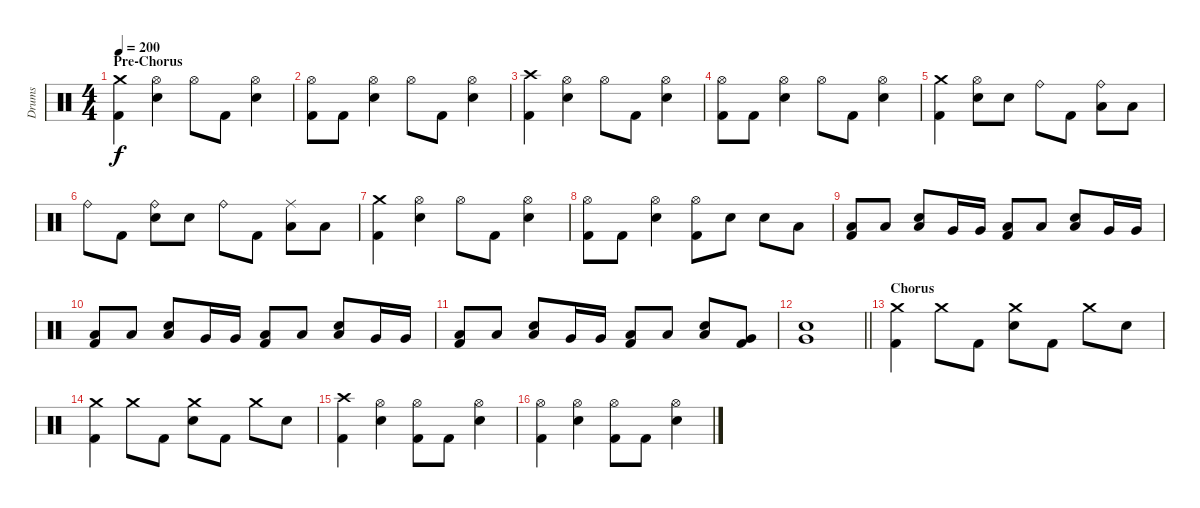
\track ("Drums" "Drums") {instrument percussion}
\staff {score}
\articulation defaults
\ts (4 4)
\section ("" "Pre-Chorus")
\tempo 200
\clef neutral
\ks c
("Crash medium (hit)" "Kick (hit) 2").4{dy f} ("Hi-Hat (open)" "Electric Snare (hit)").4 "Hi-Hat (open)".8 "Kick (hit) 2".8 ("Hi-Hat (open)" "Electric Snare (hit)").4 |
("Hi-Hat (open)" "Kick (hit) 2").8 "Kick (hit) 2".8 ("Hi-Hat (open)" "Electric Snare (hit)").4 "Hi-Hat (open)".8 "Kick (hit) 2".8 ("Hi-Hat (open)" "Electric Snare (hit)").4 |
("Crash high (hit)" "Kick (hit) 2").4 ("Hi-Hat (open)" "Electric Snare (hit)").4 "Hi-Hat (open)".8 "Kick (hit) 2".8 ("Hi-Hat (open)" "Electric Snare (hit)").4 |
("Hi-Hat (open)" "Kick (hit) 2").8 "Kick (hit) 2".8 ("Hi-Hat (open)" "Electric Snare (hit)").4 "Hi-Hat (open)".8 "Kick (hit) 2".8 ("Hi-Hat (open)" "Electric Snare (hit)").4 |
("Crash medium (hit)" "Kick (hit) 2").4 ("Hi-Hat (open)" "Electric Snare (hit)").8 "Electric Snare (hit)".8 "Ride (bell)".8 "Kick (hit) 2".8 ("Ride (bell)" "Low Tom (hit)").8 "Low Tom (hit)".8 |
"Ride (bell)".8 "Kick (hit) 2".8 ("Ride (bell)" "Electric Snare (hit)").8 "Electric Snare (hit)".8 "Ride (bell)".8 "Kick (hit) 2".8 ("Ride (middle)" "Low Tom (hit)").8 "Low Tom (hit)".8 |
("Crash medium (hit)" "Kick (hit) 2").4 ("Hi-Hat (open)" "Electric Snare (hit)").4 "Hi-Hat (open)".8 "Kick (hit) 2".8 ("Hi-Hat (open)" "Electric Snare (hit)").4 |
("Hi-Hat (open)" "Kick (hit) 2").8 "Kick (hit) 2".8 ("Hi-Hat (open)" "Electric Snare (hit)").4 ("Hi-Hat (open)" "Kick (hit) 2").8 "Electric Snare (hit)".8 "Electric Snare (hit)".8 "Low Tom (hit)".8 |
("Low Floor Tom (hit)" "Kick (hit) 2").8 "Low Floor Tom (hit)".8 ("Low Floor Tom (hit)" "Electric Snare (hit)").8 "Very Low Tom (hit)".16 "Very Low Tom (hit)".16 ("Low Floor Tom (hit)" "Kick (hit) 2").8 "Low Floor Tom (hit)".8 ("Low Floor Tom (hit)" "Electric Snare (hit)").8 "Very Low Tom (hit)".16 "Very Low Tom (hit)".16 |
("Low Floor Tom (hit)" "Kick (hit) 2").8 "Low Floor Tom (hit)".8 ("Low Floor Tom (hit)" "Electric Snare (hit)").8 "Very Low Tom (hit)".16 "Very Low Tom (hit)".16 ("Low Floor Tom (hit)" "Kick (hit) 2").8 "Low Floor Tom (hit)".8 ("Low Floor Tom (hit)" "Electric Snare (hit)").8 "Very Low Tom (hit)".16 "Very Low Tom (hit)".16 |
("Low Floor Tom (hit)" "Kick (hit) 2").8 "Low Floor Tom (hit)".8 ("Low Floor Tom (hit)" "Electric Snare (hit)").8 "Very Low Tom (hit)".16 "Very Low Tom (hit)".16 ("Low Floor Tom (hit)" "Kick (hit) 2").8 "Low Floor Tom (hit)".8 ("Low Floor Tom (hit)" "Electric Snare (hit)").8 ("Very Low Tom (hit)" "Kick (hit) 2").8 |
\barLineRight lightlight
("Electric Snare (hit)" "Very Low Tom (hit)").1 |
\section ("" "Chorus")
("Crash medium (hit)" "Kick (hit) 2").4 "Crash medium (hit)".8 "Kick (hit) 2".8 ("Crash medium (hit)" "Electric Snare (hit)").8 "Kick (hit) 2".8 "Crash medium (hit)".8 "Electric Snare (hit)".8 |
("Crash medium (hit)" "Kick (hit) 2").4 "Crash medium (hit)".8 "Kick (hit) 2".8 ("Crash medium (hit)" "Electric Snare (hit)").8 "Kick (hit) 2".8 "Crash medium (hit)".8 "Electric Snare (hit)".8 |
("Crash high (hit)" "Kick (hit) 2").4 ("Hi-Hat (open)" "Electric Snare (hit)").4 ("Hi-Hat (open)" "Kick (hit) 2").8 "Kick (hit) 2".8 ("Hi-Hat (open)" "Electric Snare (hit)").4 |
("Hi-Hat (open)" "Kick (hit) 2").4 ("Hi-Hat (open)" "Electric Snare (hit)").4 ("Hi-Hat (open)" "Kick (hit) 2").8 "Kick (hit) 2".8 ("Hi-Hat (open)" "Electric Snare (hit)").4
